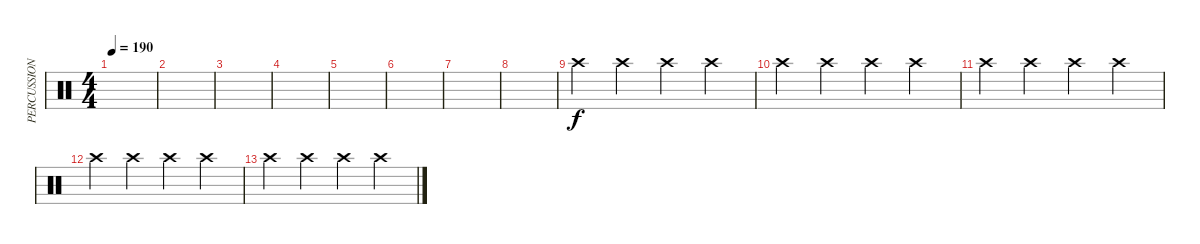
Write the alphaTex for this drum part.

\track ("PERCUSSION" "PERCUSSION") {instrument percussion}
\staff {score}
\articulation defaults
\ts (4 4)
\tempo 190
\clef neutral
\ks c
|
|
|
|
|
|
|
|
"Crash high (hit)".4 "Crash high (hit)".4 "Crash high (hit)".4 "Crash high (hit)".4 |
"Crash high (hit)".4 "Crash high (hit)".4 "Crash high (hit)".4 "Crash high (hit)".4 |
"Crash high (hit)".4 "Crash high (hit)".4 "Crash high (hit)".4 "Crash high (hit)".4 |
"Crash high (hit)".4 "Crash high (hit)".4 "Crash high (hit)".4 "Crash high (hit)".4 |
"Crash high (hit)".4 "Crash high (hit)".4 "Crash high (hit)".4 "Crash high (hit)".4
